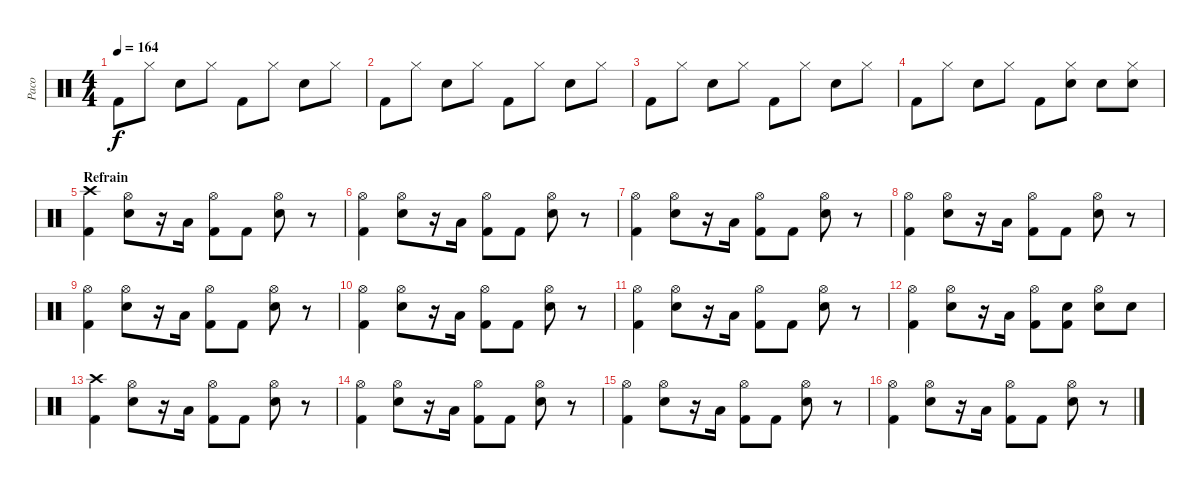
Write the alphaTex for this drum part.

\track ("Paco" "Paco") {instrument percussion}
\staff {score}
\articulation defaults
\ts (4 4)
\tempo 164
\clef neutral
\ks c "Kick (hit) 2".8{dy f} "Hi-Hat (closed)".8 "Electric Snare (hit)".8 "Hi-Hat (closed)".8 "Kick (hit) 2".8 "Hi-Hat (closed)".8 "Electric Snare (hit)".8 "Hi-Hat (closed)".8
|
"Kick (hit) 2".8 "Hi-Hat (closed)".8 "Electric Snare (hit)".8 "Hi-Hat (closed)".8 "Kick (hit) 2".8 "Hi-Hat (closed)".8 "Electric Snare (hit)".8 "Hi-Hat (closed)".8 |
"Kick (hit) 2".8 "Hi-Hat (closed)".8 "Electric Snare (hit)".8 "Hi-Hat (closed)".8 "Kick (hit) 2".8 "Hi-Hat (closed)".8 "Electric Snare (hit)".8 "Hi-Hat (closed)".8 |
"Kick (hit) 2".8 "Hi-Hat (closed)".8 "Electric Snare (hit)".8 "Hi-Hat (closed)".8 "Kick (hit) 2".8 ("Hi-Hat (closed)" "Electric Snare (hit)").8 "Electric Snare (hit)".8 ("Hi-Hat (closed)" "Electric Snare (hit)").8 |
\section ("" "Refrain")
("Crash high (hit)" "Kick (hit) 2").4 ("Hi-Hat (open)" "Electric Snare (hit)").8 r.16 "Low Floor Tom (hit)".16 ("Hi-Hat (open)" "Kick (hit) 2").8 "Kick (hit) 2".8 ("Hi-Hat (open)" "Electric Snare (hit)").8 r.8 |
("Hi-Hat (open)" "Kick (hit) 2").4 ("Hi-Hat (open)" "Electric Snare (hit)").8 r.16 "Low Floor Tom (hit)".16 ("Hi-Hat (open)" "Kick (hit) 2").8 "Kick (hit) 2".8 ("Hi-Hat (open)" "Electric Snare (hit)").8 r.8 |
("Hi-Hat (open)" "Kick (hit) 2").4 ("Hi-Hat (open)" "Electric Snare (hit)").8 r.16 "Low Floor Tom (hit)".16 ("Hi-Hat (open)" "Kick (hit) 2").8 "Kick (hit) 2".8 ("Hi-Hat (open)" "Electric Snare (hit)").8 r.8 |
("Hi-Hat (open)" "Kick (hit) 2").4 ("Hi-Hat (open)" "Electric Snare (hit)").8 r.16 "Low Floor Tom (hit)".16 ("Hi-Hat (open)" "Kick (hit) 2").8 "Kick (hit) 2".8 ("Hi-Hat (open)" "Electric Snare (hit)").8 r.8 |
("Hi-Hat (open)" "Kick (hit) 2").4 ("Hi-Hat (open)" "Electric Snare (hit)").8 r.16 "Low Floor Tom (hit)".16 ("Hi-Hat (open)" "Kick (hit) 2").8 "Kick (hit) 2".8 ("Hi-Hat (open)" "Electric Snare (hit)").8 r.8 |
("Hi-Hat (open)" "Kick (hit) 2").4 ("Hi-Hat (open)" "Electric Snare (hit)").8 r.16 "Low Floor Tom (hit)".16 ("Hi-Hat (open)" "Kick (hit) 2").8 "Kick (hit) 2".8 ("Hi-Hat (open)" "Electric Snare (hit)").8 r.8 |
("Hi-Hat (open)" "Kick (hit) 2").4 ("Hi-Hat (open)" "Electric Snare (hit)").8 r.16 "Low Floor Tom (hit)".16 ("Hi-Hat (open)" "Kick (hit) 2").8 "Kick (hit) 2".8 ("Hi-Hat (open)" "Electric Snare (hit)").8 r.8 |
("Hi-Hat (open)" "Kick (hit) 2").4 ("Hi-Hat (open)" "Electric Snare (hit)").8 r.16 "Low Floor Tom (hit)".16 ("Hi-Hat (open)" "Kick (hit) 2").8 ("Electric Snare (hit)" "Kick (hit) 2").8 ("Hi-Hat (open)" "Electric Snare (hit)").8 "Electric Snare (hit)".8 |
("Crash high (hit)" "Kick (hit) 2").4 ("Hi-Hat (open)" "Electric Snare (hit)").8 r.16 "Low Floor Tom (hit)".16 ("Hi-Hat (open)" "Kick (hit) 2").8 "Kick (hit) 2".8 ("Hi-Hat (open)" "Electric Snare (hit)").8 r.8 |
("Hi-Hat (open)" "Kick (hit) 2").4 ("Hi-Hat (open)" "Electric Snare (hit)").8 r.16 "Low Floor Tom (hit)".16 ("Hi-Hat (open)" "Kick (hit) 2").8 "Kick (hit) 2".8 ("Hi-Hat (open)" "Electric Snare (hit)").8 r.8 |
("Hi-Hat (open)" "Kick (hit) 2").4 ("Hi-Hat (open)" "Electric Snare (hit)").8 r.16 "Low Floor Tom (hit)".16 ("Hi-Hat (open)" "Kick (hit) 2").8 "Kick (hit) 2".8 ("Hi-Hat (open)" "Electric Snare (hit)").8 r.8 |
("Hi-Hat (open)" "Kick (hit) 2").4 ("Hi-Hat (open)" "Electric Snare (hit)").8 r.16 "Low Floor Tom (hit)".16 ("Hi-Hat (open)" "Kick (hit) 2").8 "Kick (hit) 2".8 ("Hi-Hat (open)" "Electric Snare (hit)").8 r.8
